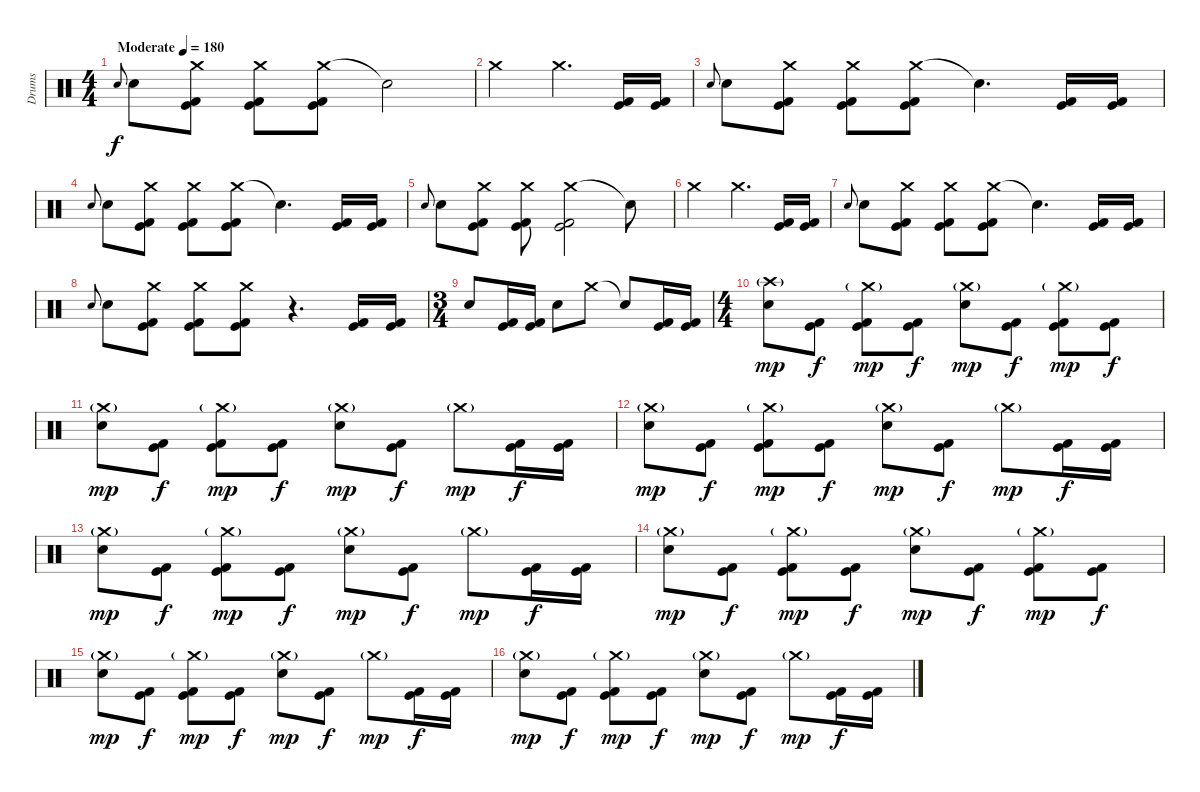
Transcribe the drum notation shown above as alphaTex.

\track ("Drums" "Drums") {instrument percussion}
\staff {score}
\articulation defaults
\ts (4 4)
\tempo (180 "Moderate")
\clef neutral
\ks c "Electric Snare (hit)".8{gr onbeat dy f} "Electric Snare (hit)".8
("Crash medium (hit)" "Kick (hit)" "Kick (hit) 2").8 ("Crash medium (hit)" "Kick (hit)" "Kick (hit) 2").8 ("Crash medium (hit)" "Kick (hit)" "Kick (hit) 2").8 "Snare (hit)"{t}.2 |
"Crash medium (hit)".2 "Crash medium (hit)".4{d} ("Kick (hit)" "Kick (hit) 2").16 ("Kick (hit)" "Kick (hit) 2").16 |
"Electric Snare (hit)".8{gr onbeat} "Electric Snare (hit)".8 ("Crash medium (hit)" "Kick (hit)" "Kick (hit) 2").8 ("Crash medium (hit)" "Kick (hit)" "Kick (hit) 2").8 ("Crash medium (hit)" "Kick (hit)" "Kick (hit) 2").8 "Snare (hit)"{t}.4{d} ("Kick (hit)" "Kick (hit) 2").16 ("Kick (hit)" "Kick (hit) 2").16 |
"Electric Snare (hit)".8{gr onbeat} "Electric Snare (hit)".8 ("Crash medium (hit)" "Kick (hit)" "Kick (hit) 2").8 ("Crash medium (hit)" "Kick (hit)" "Kick (hit) 2").8 ("Crash medium (hit)" "Kick (hit)" "Kick (hit) 2").8 "Snare (hit)"{t}.4{d} ("Kick (hit)" "Kick (hit) 2").16 ("Kick (hit)" "Kick (hit) 2").16 |
"Electric Snare (hit)".8{gr onbeat} "Electric Snare (hit)".8 ("Crash medium (hit)" "Kick (hit)" "Kick (hit) 2").8 ("Crash medium (hit)" "Kick (hit)" "Kick (hit) 2").8 ("Crash medium (hit)" "Kick (hit)" "Kick (hit) 2").2 "Snare (hit)"{t}.8 |
"Crash medium (hit)".2 "Crash medium (hit)".4{d} ("Kick (hit)" "Kick (hit) 2").16 ("Kick (hit)" "Kick (hit) 2").16 |
"Electric Snare (hit)".8{gr onbeat} "Electric Snare (hit)".8 ("Crash medium (hit)" "Kick (hit)" "Kick (hit) 2").8 ("Crash medium (hit)" "Kick (hit)" "Kick (hit) 2").8 ("Crash medium (hit)" "Kick (hit)" "Kick (hit) 2").8 "Snare (hit)"{t}.4{d} ("Kick (hit)" "Kick (hit) 2").16 ("Kick (hit)" "Kick (hit) 2").16 |
"Electric Snare (hit)".8{gr onbeat} "Electric Snare (hit)".8 ("Crash medium (hit)" "Kick (hit)" "Kick (hit) 2").8 ("Crash medium (hit)" "Kick (hit)" "Kick (hit) 2").8 ("Crash medium (hit)" "Kick (hit)" "Kick (hit) 2").8 r.4{d} ("Kick (hit)" "Kick (hit) 2").16 ("Kick (hit)" "Kick (hit) 2").16 |
\ts (3 4)
"Electric Snare (hit)".8 ("Kick (hit)" "Kick (hit) 2").16 ("Kick (hit)" "Kick (hit) 2").16 "Electric Snare (hit)".8 "Crash medium (hit)".8 "Snare (hit)"{t}.8 ("Kick (hit)" "Kick (hit) 2").16 ("Kick (hit)" "Kick (hit) 2").16 |
\ts (4 4)
("Crash high (hit)"{g} "Electric Snare (hit)").8{dy mp} ("Kick (hit)" "Kick (hit) 2").8{dy f} ("Crash medium (hit)"{g} "Kick (hit)" "Kick (hit) 2").8{dy mp} ("Kick (hit)" "Kick (hit) 2").8{dy f} ("Crash medium (hit)"{g} "Electric Snare (hit)").8{dy mp} ("Kick (hit)" "Kick (hit) 2").8{dy f} ("Crash medium (hit)"{g} "Kick (hit)" "Kick (hit) 2").8{dy mp} ("Kick (hit)" "Kick (hit) 2").8{dy f} |
("Crash medium (hit)"{g} "Electric Snare (hit)").8{dy mp} ("Kick (hit)" "Kick (hit) 2").8{dy f} ("Crash medium (hit)"{g} "Kick (hit)" "Kick (hit) 2").8{dy mp} ("Kick (hit)" "Kick (hit) 2").8{dy f} ("Crash medium (hit)"{g} "Electric Snare (hit)").8{dy mp} ("Kick (hit)" "Kick (hit) 2").8{dy f} "Crash medium (hit)"{g}.8{dy mp} ("Kick (hit)" "Kick (hit) 2").16{dy f} ("Kick (hit)" "Kick (hit) 2").16 |
("Crash medium (hit)"{g} "Electric Snare (hit)").8{dy mp} ("Kick (hit)" "Kick (hit) 2").8{dy f} ("Crash medium (hit)"{g} "Kick (hit)" "Kick (hit) 2").8{dy mp} ("Kick (hit)" "Kick (hit) 2").8{dy f} ("Crash medium (hit)"{g} "Electric Snare (hit)").8{dy mp} ("Kick (hit)" "Kick (hit) 2").8{dy f} "Crash medium (hit)"{g}.8{dy mp} ("Kick (hit)" "Kick (hit) 2").16{dy f} ("Kick (hit)" "Kick (hit) 2").16 |
("Crash medium (hit)"{g} "Electric Snare (hit)").8{dy mp} ("Kick (hit)" "Kick (hit) 2").8{dy f} ("Crash medium (hit)"{g} "Kick (hit)" "Kick (hit) 2").8{dy mp} ("Kick (hit)" "Kick (hit) 2").8{dy f} ("Crash medium (hit)"{g} "Electric Snare (hit)").8{dy mp} ("Kick (hit)" "Kick (hit) 2").8{dy f} "Crash medium (hit)"{g}.8{dy mp} ("Kick (hit)" "Kick (hit) 2").16{dy f} ("Kick (hit)" "Kick (hit) 2").16 |
("Crash medium (hit)"{g} "Electric Snare (hit)").8{dy mp} ("Kick (hit)" "Kick (hit) 2").8{dy f} ("Crash medium (hit)"{g} "Kick (hit)" "Kick (hit) 2").8{dy mp} ("Kick (hit)" "Kick (hit) 2").8{dy f} ("Crash medium (hit)"{g} "Electric Snare (hit)").8{dy mp} ("Kick (hit)" "Kick (hit) 2").8{dy f} ("Crash medium (hit)"{g} "Kick (hit)" "Kick (hit) 2").8{dy mp} ("Kick (hit)" "Kick (hit) 2").8{dy f} |
("Crash medium (hit)"{g} "Electric Snare (hit)").8{dy mp} ("Kick (hit)" "Kick (hit) 2").8{dy f} ("Crash medium (hit)"{g} "Kick (hit)" "Kick (hit) 2").8{dy mp} ("Kick (hit)" "Kick (hit) 2").8{dy f} ("Crash medium (hit)"{g} "Electric Snare (hit)").8{dy mp} ("Kick (hit)" "Kick (hit) 2").8{dy f} "Crash medium (hit)"{g}.8{dy mp} ("Kick (hit)" "Kick (hit) 2").16{dy f} ("Kick (hit)" "Kick (hit) 2").16 |
("Crash medium (hit)"{g} "Electric Snare (hit)").8{dy mp} ("Kick (hit)" "Kick (hit) 2").8{dy f} ("Crash medium (hit)"{g} "Kick (hit)" "Kick (hit) 2").8{dy mp} ("Kick (hit)" "Kick (hit) 2").8{dy f} ("Crash medium (hit)"{g} "Electric Snare (hit)").8{dy mp} ("Kick (hit)" "Kick (hit) 2").8{dy f} "Crash medium (hit)"{g}.8{dy mp} ("Kick (hit)" "Kick (hit) 2").16{dy f} ("Kick (hit)" "Kick (hit) 2").16
